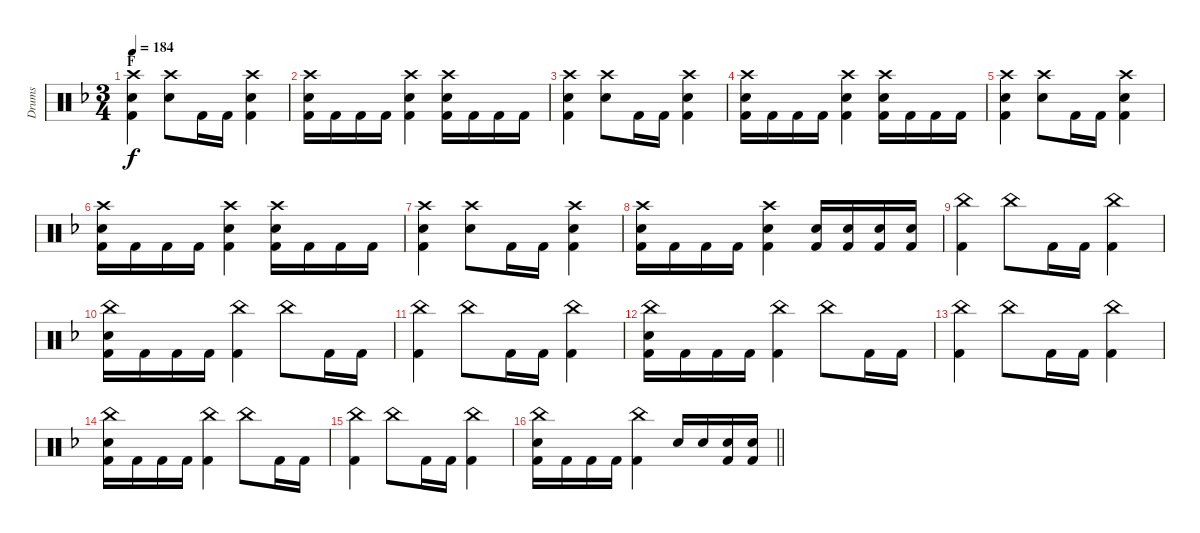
\track ("Drums" "Drums") {instrument percussion}
\staff {score}
\articulation defaults
\ts (3 4)
\section ("" "F")
\tempo 184
\clef neutral
\ks f
("Crash high (hit)" "Electric Snare (hit)" "Kick (hit) 2").4{dy f} ("Crash high (hit)" "Electric Snare (hit)").8 "Kick (hit) 2".16 "Kick (hit) 2".16 ("Crash high (hit)" "Electric Snare (hit)" "Kick (hit) 2").4 |
("Crash high (hit)" "Electric Snare (hit)" "Kick (hit) 2").16 "Kick (hit) 2".16 "Kick (hit) 2".16 "Kick (hit) 2".16 ("Crash high (hit)" "Electric Snare (hit)" "Kick (hit) 2").4 ("Crash high (hit)" "Electric Snare (hit)" "Kick (hit) 2").16 "Kick (hit) 2".16 "Kick (hit) 2".16 "Kick (hit) 2".16 |
("Crash high (hit)" "Electric Snare (hit)" "Kick (hit) 2").4 ("Crash high (hit)" "Electric Snare (hit)").8 "Kick (hit) 2".16 "Kick (hit) 2".16 ("Crash high (hit)" "Electric Snare (hit)" "Kick (hit) 2").4 |
("Crash high (hit)" "Electric Snare (hit)" "Kick (hit) 2").16 "Kick (hit) 2".16 "Kick (hit) 2".16 "Kick (hit) 2".16 ("Crash high (hit)" "Electric Snare (hit)" "Kick (hit) 2").4 ("Crash high (hit)" "Electric Snare (hit)" "Kick (hit) 2").16 "Kick (hit) 2".16 "Kick (hit) 2".16 "Kick (hit) 2".16 |
("Crash high (hit)" "Electric Snare (hit)" "Kick (hit) 2").4 ("Crash high (hit)" "Electric Snare (hit)").8 "Kick (hit) 2".16 "Kick (hit) 2".16 ("Crash high (hit)" "Electric Snare (hit)" "Kick (hit) 2").4 |
("Crash high (hit)" "Electric Snare (hit)" "Kick (hit) 2").16 "Kick (hit) 2".16 "Kick (hit) 2".16 "Kick (hit) 2".16 ("Crash high (hit)" "Electric Snare (hit)" "Kick (hit) 2").4 ("Crash high (hit)" "Electric Snare (hit)" "Kick (hit) 2").16 "Kick (hit) 2".16 "Kick (hit) 2".16 "Kick (hit) 2".16 |
("Crash high (hit)" "Electric Snare (hit)" "Kick (hit) 2").4 ("Crash high (hit)" "Electric Snare (hit)").8 "Kick (hit) 2".16 "Kick (hit) 2".16 ("Crash high (hit)" "Electric Snare (hit)" "Kick (hit) 2").4 |
("Crash high (hit)" "Electric Snare (hit)" "Kick (hit) 2").16 "Kick (hit) 2".16 "Kick (hit) 2".16 "Kick (hit) 2".16 ("Crash high (hit)" "Electric Snare (hit)" "Kick (hit) 2").4 ("Electric Snare (hit)" "Kick (hit) 2").16 ("Electric Snare (hit)" "Kick (hit) 2").16 ("Electric Snare (hit)" "Kick (hit) 2").16 ("Electric Snare (hit)" "Kick (hit) 2").16 |
("China (hit)" "Kick (hit) 2").4 "China (hit)".8 "Kick (hit) 2".16 "Kick (hit) 2".16 ("China (hit)" "Kick (hit) 2").4 |
("China (hit)" "Electric Snare (hit)" "Kick (hit) 2").16 "Kick (hit) 2".16 "Kick (hit) 2".16 "Kick (hit) 2".16 ("China (hit)" "Kick (hit) 2").4 "China (hit)".8 "Kick (hit) 2".16 "Kick (hit) 2".16 |
("China (hit)" "Kick (hit) 2").4 "China (hit)".8 "Kick (hit) 2".16 "Kick (hit) 2".16 ("China (hit)" "Kick (hit) 2").4 |
("China (hit)" "Electric Snare (hit)" "Kick (hit) 2").16 "Kick (hit) 2".16 "Kick (hit) 2".16 "Kick (hit) 2".16 ("China (hit)" "Kick (hit) 2").4 "China (hit)".8 "Kick (hit) 2".16 "Kick (hit) 2".16 |
("China (hit)" "Kick (hit) 2").4 "China (hit)".8 "Kick (hit) 2".16 "Kick (hit) 2".16 ("China (hit)" "Kick (hit) 2").4 |
("China (hit)" "Electric Snare (hit)" "Kick (hit) 2").16 "Kick (hit) 2".16 "Kick (hit) 2".16 "Kick (hit) 2".16 ("China (hit)" "Kick (hit) 2").4 "China (hit)".8 "Kick (hit) 2".16 "Kick (hit) 2".16 |
("China (hit)" "Kick (hit) 2").4 "China (hit)".8 "Kick (hit) 2".16 "Kick (hit) 2".16 ("China (hit)" "Kick (hit) 2").4 |
\barLineRight lightlight
("China (hit)" "Electric Snare (hit)" "Kick (hit) 2").16 "Kick (hit) 2".16 "Kick (hit) 2".16 "Kick (hit) 2".16 ("China (hit)" "Kick (hit) 2").4 "Electric Snare (hit)".16 "Electric Snare (hit)".16 ("Electric Snare (hit)" "Kick (hit) 2").16 ("Electric Snare (hit)" "Kick (hit) 2").16
